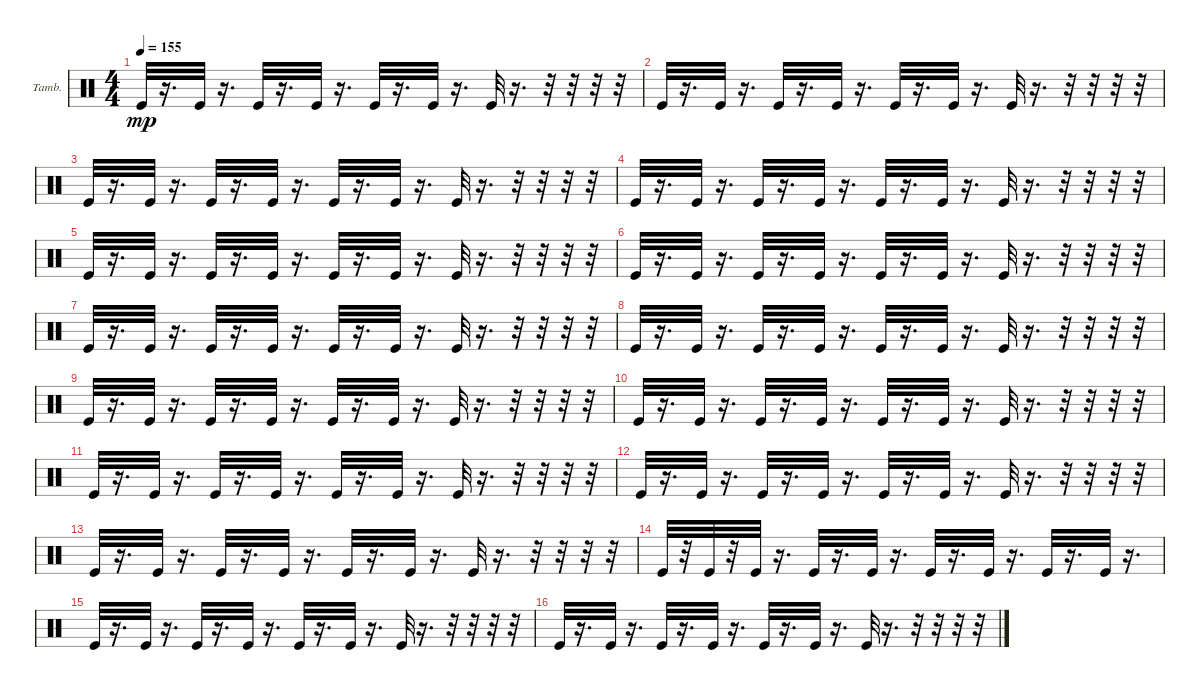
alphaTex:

\bracketExtendMode groupsimilarinstruments
\firstSystemTrackNameOrientation horizontal
\otherSystemsTrackNameOrientation horizontal
\track ("Е. Кулаков" "Tamb.") {instrument percussion}
\staff {score}
\articulation defaults
\ts (4 4)
\tempo 155
\clef neutral
\ks c "Kick (hit)".32{dy mp}
r.16{d} "Kick (hit)".32 r.16{d} "Kick (hit)".32 r.16{d} "Kick (hit)".32 r.16{d} "Kick (hit)".32 r.16{d} "Kick (hit)".32 r.16{d} "Kick (hit)".32 r.16{d} r.32 r.32 r.32 r.32 |
"Kick (hit)".32 r.16{d} "Kick (hit)".32 r.16{d} "Kick (hit)".32 r.16{d} "Kick (hit)".32 r.16{d} "Kick (hit)".32 r.16{d} "Kick (hit)".32 r.16{d} "Kick (hit)".32 r.16{d} r.32 r.32 r.32 r.32 |
"Kick (hit)".32 r.16{d} "Kick (hit)".32 r.16{d} "Kick (hit)".32 r.16{d} "Kick (hit)".32 r.16{d} "Kick (hit)".32 r.16{d} "Kick (hit)".32 r.16{d} "Kick (hit)".32 r.16{d} r.32 r.32 r.32 r.32 |
"Kick (hit)".32 r.16{d} "Kick (hit)".32 r.16{d} "Kick (hit)".32 r.16{d} "Kick (hit)".32 r.16{d} "Kick (hit)".32 r.16{d} "Kick (hit)".32 r.16{d} "Kick (hit)".32 r.16{d} r.32 r.32 r.32 r.32 |
"Kick (hit)".32 r.16{d} "Kick (hit)".32 r.16{d} "Kick (hit)".32 r.16{d} "Kick (hit)".32 r.16{d} "Kick (hit)".32 r.16{d} "Kick (hit)".32 r.16{d} "Kick (hit)".32 r.16{d} r.32 r.32 r.32 r.32 |
"Kick (hit)".32 r.16{d} "Kick (hit)".32 r.16{d} "Kick (hit)".32 r.16{d} "Kick (hit)".32 r.16{d} "Kick (hit)".32 r.16{d} "Kick (hit)".32 r.16{d} "Kick (hit)".32 r.16{d} r.32 r.32 r.32 r.32 |
"Kick (hit)".32 r.16{d} "Kick (hit)".32 r.16{d} "Kick (hit)".32 r.16{d} "Kick (hit)".32 r.16{d} "Kick (hit)".32 r.16{d} "Kick (hit)".32 r.16{d} "Kick (hit)".32 r.16{d} r.32 r.32 r.32 r.32 |
"Kick (hit)".32 r.16{d} "Kick (hit)".32 r.16{d} "Kick (hit)".32 r.16{d} "Kick (hit)".32 r.16{d} "Kick (hit)".32 r.16{d} "Kick (hit)".32 r.16{d} "Kick (hit)".32 r.16{d} r.32 r.32 r.32 r.32 |
"Kick (hit)".32 r.16{d} "Kick (hit)".32 r.16{d} "Kick (hit)".32 r.16{d} "Kick (hit)".32 r.16{d} "Kick (hit)".32 r.16{d} "Kick (hit)".32 r.16{d} "Kick (hit)".32 r.16{d} r.32 r.32 r.32 r.32 |
"Kick (hit)".32 r.16{d} "Kick (hit)".32 r.16{d} "Kick (hit)".32 r.16{d} "Kick (hit)".32 r.16{d} "Kick (hit)".32 r.16{d} "Kick (hit)".32 r.16{d} "Kick (hit)".32 r.16{d} r.32 r.32 r.32 r.32 |
"Kick (hit)".32 r.16{d} "Kick (hit)".32 r.16{d} "Kick (hit)".32 r.16{d} "Kick (hit)".32 r.16{d} "Kick (hit)".32 r.16{d} "Kick (hit)".32 r.16{d} "Kick (hit)".32 r.16{d} r.32 r.32 r.32 r.32 |
"Kick (hit)".32 r.16{d} "Kick (hit)".32 r.16{d} "Kick (hit)".32 r.16{d} "Kick (hit)".32 r.16{d} "Kick (hit)".32 r.16{d} "Kick (hit)".32 r.16{d} "Kick (hit)".32 r.16{d} r.32 r.32 r.32 r.32 |
"Kick (hit)".32 r.16{d} "Kick (hit)".32 r.16{d} "Kick (hit)".32 r.16{d} "Kick (hit)".32 r.16{d} "Kick (hit)".32 r.16{d} "Kick (hit)".32 r.16{d} "Kick (hit)".32 r.16{d} r.32 r.32 r.32 r.32 |
"Kick (hit)".32 r.32 "Kick (hit)".32 r.32 "Kick (hit)".32 r.16{d} "Kick (hit)".32 r.16{d} "Kick (hit)".32 r.16{d} "Kick (hit)".32 r.16{d} "Kick (hit)".32 r.16{d} "Kick (hit)".32 r.16{d} "Kick (hit)".32 r.16{d} |
"Kick (hit)".32 r.16{d} "Kick (hit)".32 r.16{d} "Kick (hit)".32 r.16{d} "Kick (hit)".32 r.16{d} "Kick (hit)".32 r.16{d} "Kick (hit)".32 r.16{d} "Kick (hit)".32 r.16{d} r.32 r.32 r.32 r.32 |
"Kick (hit)".32 r.16{d} "Kick (hit)".32 r.16{d} "Kick (hit)".32 r.16{d} "Kick (hit)".32 r.16{d} "Kick (hit)".32 r.16{d} "Kick (hit)".32 r.16{d} "Kick (hit)".32 r.16{d} r.32 r.32 r.32 r.32
